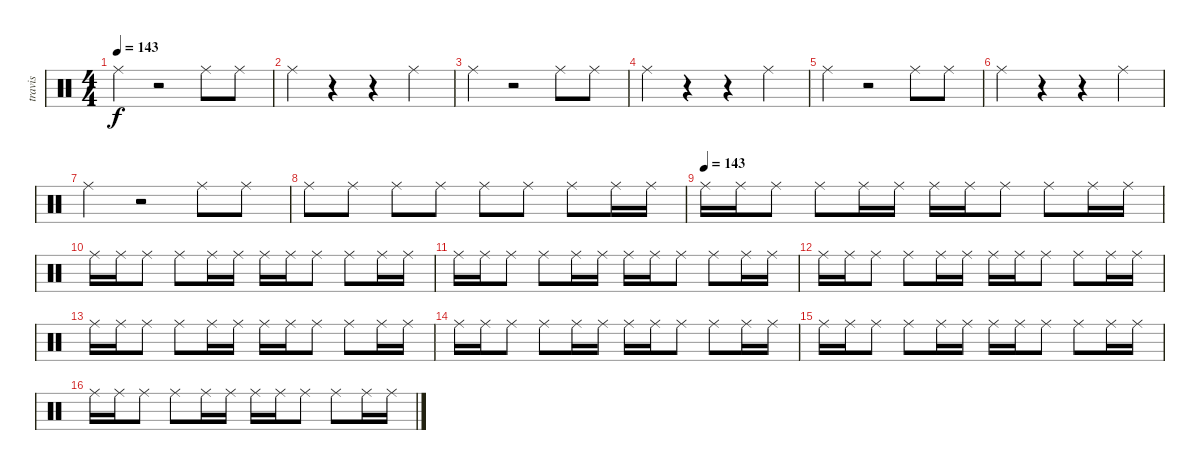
\track ("travis" "travis") {instrument percussion}
\staff {score}
\articulation defaults
\ts (4 4)
\tempo 143
\clef neutral
\ks c "Ride (middle)".4{dy f}
r.2 "Ride (middle)".8 "Ride (middle)".8 |
"Ride (middle)".4 r.4 r.4 "Ride (middle)".4 |
"Ride (middle)".4 r.2 "Ride (middle)".8 "Ride (middle)".8 |
"Ride (middle)".4 r.4 r.4 "Ride (middle)".4 |
"Ride (middle)".4 r.2 "Ride (middle)".8 "Ride (middle)".8 |
"Ride (middle)".4 r.4 r.4 "Ride (middle)".4 |
"Ride (middle)".4 r.2 "Ride (middle)".8 "Ride (middle)".8 |
"Ride (middle)".8 "Ride (middle)".8 "Ride (middle)".8 "Ride (middle)".8 "Ride (middle)".8 "Ride (middle)".8 "Ride (middle)".8 "Ride (middle)".16 "Ride (middle)".16 |
\tempo (143)
"Ride (middle)".16 "Ride (middle)".16 "Ride (middle)".8 "Ride (middle)".8 "Ride (middle)".16 "Ride (middle)".16 "Ride (middle)".16 "Ride (middle)".16 "Ride (middle)".8 "Ride (middle)".8 "Ride (middle)".16 "Ride (middle)".16 |
"Ride (middle)".16 "Ride (middle)".16 "Ride (middle)".8 "Ride (middle)".8 "Ride (middle)".16 "Ride (middle)".16 "Ride (middle)".16 "Ride (middle)".16 "Ride (middle)".8 "Ride (middle)".8 "Ride (middle)".16 "Ride (middle)".16 |
"Ride (middle)".16 "Ride (middle)".16 "Ride (middle)".8 "Ride (middle)".8 "Ride (middle)".16 "Ride (middle)".16 "Ride (middle)".16 "Ride (middle)".16 "Ride (middle)".8 "Ride (middle)".8 "Ride (middle)".16 "Ride (middle)".16 |
"Ride (middle)".16 "Ride (middle)".16 "Ride (middle)".8 "Ride (middle)".8 "Ride (middle)".16 "Ride (middle)".16 "Ride (middle)".16 "Ride (middle)".16 "Ride (middle)".8 "Ride (middle)".8 "Ride (middle)".16 "Ride (middle)".16 |
"Ride (middle)".16 "Ride (middle)".16 "Ride (middle)".8 "Ride (middle)".8 "Ride (middle)".16 "Ride (middle)".16 "Ride (middle)".16 "Ride (middle)".16 "Ride (middle)".8 "Ride (middle)".8 "Ride (middle)".16 "Ride (middle)".16 |
"Ride (middle)".16 "Ride (middle)".16 "Ride (middle)".8 "Ride (middle)".8 "Ride (middle)".16 "Ride (middle)".16 "Ride (middle)".16 "Ride (middle)".16 "Ride (middle)".8 "Ride (middle)".8 "Ride (middle)".16 "Ride (middle)".16 |
"Ride (middle)".16 "Ride (middle)".16 "Ride (middle)".8 "Ride (middle)".8 "Ride (middle)".16 "Ride (middle)".16 "Ride (middle)".16 "Ride (middle)".16 "Ride (middle)".8 "Ride (middle)".8 "Ride (middle)".16 "Ride (middle)".16 |
"Ride (middle)".16 "Ride (middle)".16 "Ride (middle)".8 "Ride (middle)".8 "Ride (middle)".16 "Ride (middle)".16 "Ride (middle)".16 "Ride (middle)".16 "Ride (middle)".8 "Ride (middle)".8 "Ride (middle)".16 "Ride (middle)".16
